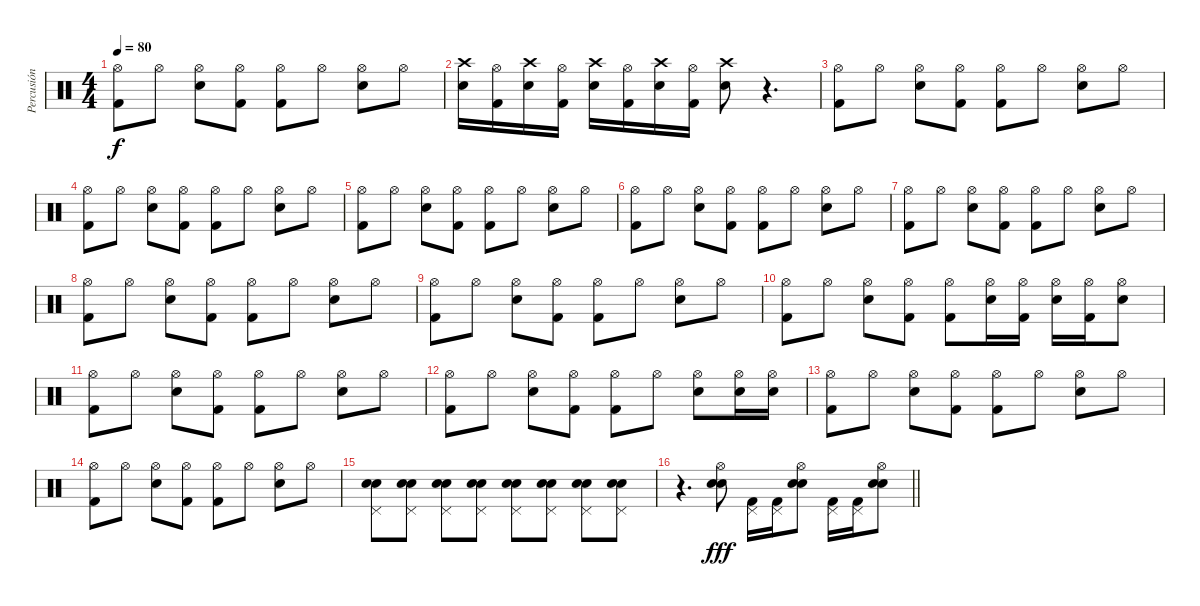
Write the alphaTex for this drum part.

\track ("Percusión" "Percusión") {instrument percussion}
\staff {score}
\articulation defaults
\ts (4 4)
\tempo 80
\clef neutral
\ks c
("Hi-Hat (open)" "Kick (hit) 2").8{dy f} "Hi-Hat (open)".8 ("Hi-Hat (open)" "Electric Snare (hit)").8 ("Hi-Hat (open)" "Kick (hit) 2").8 ("Hi-Hat (open)" "Kick (hit) 2").8 "Hi-Hat (open)".8 ("Hi-Hat (open)" "Electric Snare (hit)").8 "Hi-Hat (open)".8 |
("Crash high (hit)" "Electric Snare (hit)").16 ("Hi-Hat (open)" "Kick (hit) 2").16 ("Crash high (hit)" "Electric Snare (hit)").16 ("Hi-Hat (open)" "Kick (hit) 2").16 ("Crash high (hit)" "Electric Snare (hit)").16 ("Hi-Hat (open)" "Kick (hit) 2").16 ("Crash high (hit)" "Electric Snare (hit)").16 ("Hi-Hat (open)" "Kick (hit) 2").16 ("Crash high (hit)" "Electric Snare (hit)").8 r.4{d} |
("Hi-Hat (open)" "Kick (hit) 2").8 "Hi-Hat (open)".8 ("Hi-Hat (open)" "Electric Snare (hit)").8 ("Hi-Hat (open)" "Kick (hit) 2").8 ("Hi-Hat (open)" "Kick (hit) 2").8 "Hi-Hat (open)".8 ("Hi-Hat (open)" "Electric Snare (hit)").8 "Hi-Hat (open)".8 |
("Hi-Hat (open)" "Kick (hit) 2").8 "Hi-Hat (open)".8 ("Hi-Hat (open)" "Electric Snare (hit)").8 ("Hi-Hat (open)" "Kick (hit) 2").8 ("Hi-Hat (open)" "Kick (hit) 2").8 "Hi-Hat (open)".8 ("Hi-Hat (open)" "Electric Snare (hit)").8 "Hi-Hat (open)".8 |
("Hi-Hat (open)" "Kick (hit) 2").8 "Hi-Hat (open)".8 ("Hi-Hat (open)" "Electric Snare (hit)").8 ("Hi-Hat (open)" "Kick (hit) 2").8 ("Hi-Hat (open)" "Kick (hit) 2").8 "Hi-Hat (open)".8 ("Hi-Hat (open)" "Electric Snare (hit)").8 "Hi-Hat (open)".8 |
("Hi-Hat (open)" "Kick (hit) 2").8 "Hi-Hat (open)".8 ("Hi-Hat (open)" "Electric Snare (hit)").8 ("Hi-Hat (open)" "Kick (hit) 2").8 ("Hi-Hat (open)" "Kick (hit) 2").8 "Hi-Hat (open)".8 ("Hi-Hat (open)" "Electric Snare (hit)").8 "Hi-Hat (open)".8 |
("Hi-Hat (open)" "Kick (hit) 2").8 "Hi-Hat (open)".8 ("Hi-Hat (open)" "Electric Snare (hit)").8 ("Hi-Hat (open)" "Kick (hit) 2").8 ("Hi-Hat (open)" "Kick (hit) 2").8 "Hi-Hat (open)".8 ("Hi-Hat (open)" "Electric Snare (hit)").8 "Hi-Hat (open)".8 |
("Hi-Hat (open)" "Kick (hit) 2").8 "Hi-Hat (open)".8 ("Hi-Hat (open)" "Electric Snare (hit)").8 ("Hi-Hat (open)" "Kick (hit) 2").8 ("Hi-Hat (open)" "Kick (hit) 2").8 "Hi-Hat (open)".8 ("Hi-Hat (open)" "Electric Snare (hit)").8 "Hi-Hat (open)".8 |
("Hi-Hat (open)" "Kick (hit) 2").8 "Hi-Hat (open)".8 ("Hi-Hat (open)" "Electric Snare (hit)").8 ("Hi-Hat (open)" "Kick (hit) 2").8 ("Hi-Hat (open)" "Kick (hit) 2").8 "Hi-Hat (open)".8 ("Hi-Hat (open)" "Electric Snare (hit)").8 "Hi-Hat (open)".8 |
("Hi-Hat (open)" "Kick (hit) 2").8 "Hi-Hat (open)".8 ("Hi-Hat (open)" "Electric Snare (hit)").8 ("Hi-Hat (open)" "Kick (hit) 2").8 ("Hi-Hat (open)" "Kick (hit) 2").8 ("Hi-Hat (open)" "Electric Snare (hit)").16 ("Hi-Hat (open)" "Kick (hit) 2").16 ("Hi-Hat (open)" "Electric Snare (hit)").16 ("Hi-Hat (open)" "Kick (hit) 2").16 ("Hi-Hat (open)" "Electric Snare (hit)").8 |
("Hi-Hat (open)" "Kick (hit) 2").8 "Hi-Hat (open)".8 ("Hi-Hat (open)" "Electric Snare (hit)").8 ("Hi-Hat (open)" "Kick (hit) 2").8 ("Hi-Hat (open)" "Kick (hit) 2").8 "Hi-Hat (open)".8 ("Hi-Hat (open)" "Electric Snare (hit)").8 "Hi-Hat (open)".8 |
("Hi-Hat (open)" "Kick (hit) 2").8 "Hi-Hat (open)".8 ("Hi-Hat (open)" "Electric Snare (hit)").8 ("Hi-Hat (open)" "Kick (hit) 2").8 ("Hi-Hat (open)" "Kick (hit) 2").8 "Hi-Hat (open)".8 ("Hi-Hat (open)" "Electric Snare (hit)").8 ("Hi-Hat (open)" "Electric Snare (hit)").16 ("Hi-Hat (open)" "Electric Snare (hit)").16 |
("Hi-Hat (open)" "Kick (hit) 2").8 "Hi-Hat (open)".8 ("Hi-Hat (open)" "Electric Snare (hit)").8 ("Hi-Hat (open)" "Kick (hit) 2").8 ("Hi-Hat (open)" "Kick (hit) 2").8 "Hi-Hat (open)".8 ("Hi-Hat (open)" "Electric Snare (hit)").8 "Hi-Hat (open)".8 |
("Hi-Hat (open)" "Kick (hit) 2").8 "Hi-Hat (open)".8 ("Hi-Hat (open)" "Electric Snare (hit)").8 ("Hi-Hat (open)" "Kick (hit) 2").8 ("Hi-Hat (open)" "Kick (hit) 2").8 "Hi-Hat (open)".8 ("Hi-Hat (open)" "Electric Snare (hit)").8 "Hi-Hat (open)".8 |
("Pedal Hi-Hat (hit)" "Snare (hit) 2" "Electric Snare (hit)").8 ("Pedal Hi-Hat (hit)" "Snare (hit) 2" "Electric Snare (hit)").8 ("Pedal Hi-Hat (hit)" "Snare (hit) 2" "Electric Snare (hit)").8 ("Pedal Hi-Hat (hit)" "Snare (hit) 2" "Electric Snare (hit)").8 ("Pedal Hi-Hat (hit)" "Snare (hit) 2" "Electric Snare (hit)").8 ("Pedal Hi-Hat (hit)" "Snare (hit) 2" "Electric Snare (hit)").8 ("Pedal Hi-Hat (hit)" "Snare (hit) 2" "Electric Snare (hit)").8 ("Pedal Hi-Hat (hit)" "Snare (hit) 2" "Electric Snare (hit)").8 |
\barLineRight lightlight
r.4{d} ("Electric Snare (hit)" "Snare (hit) 2" "Hi-Hat (open)").8{dy fff} ("Kick (hit) 2" "Pedal Hi-Hat (hit)").16 ("Kick (hit) 2" "Pedal Hi-Hat (hit)").16 ("Electric Snare (hit)" "Snare (hit) 2" "Hi-Hat (open)").8 ("Kick (hit) 2" "Pedal Hi-Hat (hit)").16 ("Kick (hit) 2" "Pedal Hi-Hat (hit)").16 ("Electric Snare (hit)" "Snare (hit) 2" "Hi-Hat (open)").8
